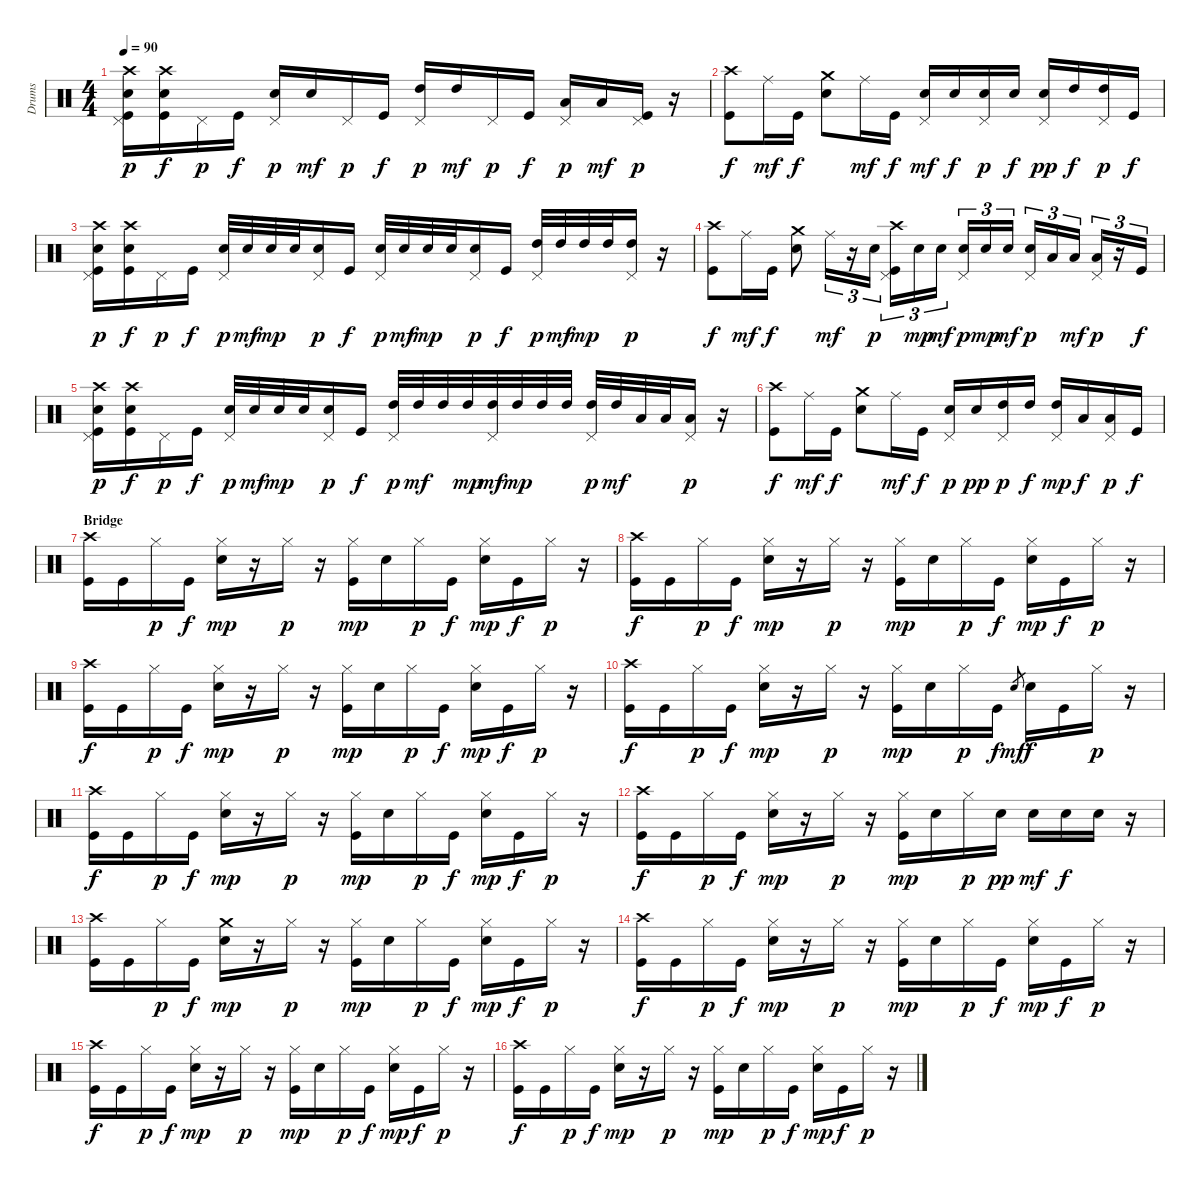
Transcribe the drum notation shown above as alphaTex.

\track ("Drums" "Drums") {instrument percussion}
\staff {score}
\articulation defaults
\ts (4 4)
\tempo 90
\clef neutral
\ks c
("Crash high (hit)" "Pedal Hi-Hat (hit)" "Snare (hit) 2" "Kick (hit)").16{dy p} ("Crash high (hit)" "Snare (hit) 2" "Kick (hit)").16{dy f} "Pedal Hi-Hat (hit)".16{dy p} "Kick (hit)".16{dy f} ("Pedal Hi-Hat (hit)" "Snare (hit) 2").16{dy p} "Snare (hit) 2".16{dy mf} "Pedal Hi-Hat (hit)".16{dy p} "Kick (hit)".16{dy f} ("Pedal Hi-Hat (hit)" "High Tom (hit)").16{dy p} "High Tom (hit)".16{dy mf} "Pedal Hi-Hat (hit)".16{dy p} "Kick (hit)".16{dy f} ("Pedal Hi-Hat (hit)" "Low Tom (hit)").16{dy p} "Low Tom (hit)".16{dy mf} ("Pedal Hi-Hat (hit)" "Kick (hit)").16{dy p} r.16 |
("Crash high (hit)" "Kick (hit)").8{dy f} "Ride (middle)".16{dy mf} "Kick (hit)".16{dy f} ("Crash medium (hit)" "Snare (hit) 2").8 "Ride (middle)".16{dy mf} "Kick (hit)".16{dy f} ("Pedal Hi-Hat (hit)" "Snare (hit) 2").16{dy mf} "Snare (hit) 2".16{dy f} ("Pedal Hi-Hat (hit)" "Snare (hit) 2").16{dy p} "Snare (hit) 2".16{dy f} ("Pedal Hi-Hat (hit)" "Snare (hit) 2").16{dy pp} "High Tom (hit)".16{dy f} ("Pedal Hi-Hat (hit)" "High Tom (hit)").16{dy p} "Kick (hit)".16{dy f} |
("Crash high (hit)" "Pedal Hi-Hat (hit)" "Snare (hit) 2" "Kick (hit)").16{dy p} ("Crash high (hit)" "Snare (hit) 2" "Kick (hit)").16{dy f} "Pedal Hi-Hat (hit)".16{dy p} "Kick (hit)".16{dy f} ("Pedal Hi-Hat (hit)" "Snare (hit) 2").32{dy p} "Snare (hit) 2".32{dy mf} "Snare (hit) 2".32{dy mp} "Snare (hit) 2".32 ("Pedal Hi-Hat (hit)" "Snare (hit) 2").16{dy p} "Kick (hit)".16{dy f} ("Pedal Hi-Hat (hit)" "Snare (hit) 2").32{dy p} "Snare (hit) 2".32{dy mf} "Snare (hit) 2".32{dy mp} "Snare (hit) 2".32 ("Pedal Hi-Hat (hit)" "Snare (hit) 2").16{dy p} "Kick (hit)".16{dy f} ("Pedal Hi-Hat (hit)" "High Tom (hit)").32{dy p} "High Tom (hit)".32{dy mf} "High Tom (hit)".32{dy mp} "High Tom (hit)".32 ("Pedal Hi-Hat (hit)" "High Tom (hit)").16{dy p} r.16 |
("Crash high (hit)" "Kick (hit)").8{dy f} "Ride (middle)".16{dy mf} "Kick (hit)".16{dy f} ("Crash medium (hit)" "Snare (hit) 2").8 "Ride (middle)".16{tu (3 2) dy mf} r.16{tu (3 2)} "Snare (hit) 2".16{tu (3 2) dy p} ("Crash high (hit)" "Pedal Hi-Hat (hit)" "Kick (hit)").16{tu (3 2)} "Snare (hit) 2".16{tu (3 2) dy mp} "Snare (hit) 2".16{tu (3 2) dy mf} ("Pedal Hi-Hat (hit)" "Snare (hit) 2").16{tu (3 2) dy p} "Snare (hit) 2".16{tu (3 2) dy mp} "Snare (hit) 2".16{tu (3 2) dy mf} ("Pedal Hi-Hat (hit)" "Snare (hit) 2").16{tu (3 2) dy p} "Low Tom (hit)".16{tu (3 2)} "Low Tom (hit)".16{tu (3 2) dy mf} ("Pedal Hi-Hat (hit)" "Low Tom (hit)").16{tu (3 2) dy p} r.16{tu (3 2)} "Kick (hit)".16{tu (3 2) dy f} |
("Crash high (hit)" "Pedal Hi-Hat (hit)" "Snare (hit) 2" "Kick (hit)").16{dy p} ("Crash high (hit)" "Snare (hit) 2" "Kick (hit)").16{dy f} "Pedal Hi-Hat (hit)".16{dy p} "Kick (hit)".16{dy f} ("Pedal Hi-Hat (hit)" "Snare (hit) 2").32{dy p} "Snare (hit) 2".32{dy mf} "Snare (hit) 2".32{dy mp} "Snare (hit) 2".32 ("Pedal Hi-Hat (hit)" "Snare (hit) 2").16{dy p} "Kick (hit)".16{dy f} ("Pedal Hi-Hat (hit)" "High Tom (hit)").32{dy p} "High Tom (hit)".32{dy mf} "High Tom (hit)".32 "High Tom (hit)".32{dy mp} ("Pedal Hi-Hat (hit)" "High Tom (hit)").32{dy mf} "High Tom (hit)".32{dy mp} "High Tom (hit)".32 "High Tom (hit)".32 ("Pedal Hi-Hat (hit)" "High Tom (hit)").32{dy p} "High Tom (hit)".32{dy mf} "Low Tom (hit)".32 "Low Tom (hit)".32 ("Pedal Hi-Hat (hit)" "Low Tom (hit)").16{dy p} r.16 |
("Crash high (hit)" "Kick (hit)").8{dy f} "Ride (middle)".16{dy mf} "Kick (hit)".16{dy f} ("Crash medium (hit)" "Snare (hit) 2").8 "Ride (middle)".16{dy mf} "Kick (hit)".16{dy f} ("Pedal Hi-Hat (hit)" "Snare (hit) 2").16{dy p} "Snare (hit) 2".16{dy pp} ("Pedal Hi-Hat (hit)" "High Tom (hit)").16{dy p} "High Tom (hit)".16{dy f} ("Pedal Hi-Hat (hit)" "High Tom (hit)").16{dy mp} "Low Tom (hit)".16{dy f} ("Pedal Hi-Hat (hit)" "Low Tom (hit)").16{dy p} "Kick (hit)".16{dy f} |
\section ("" "Bridge")
("Crash high (hit)" "Kick (hit)").16 "Kick (hit)".16 "Hi-Hat (closed)".16{dy p} "Kick (hit)".16{dy f} ("Hi-Hat (closed)" "Snare (hit) 2").16{dy mp} r.16 "Hi-Hat (closed)".16{dy p} r.16 ("Hi-Hat (closed)" "Kick (hit)").16{dy mp} "Snare (hit) 2".16 "Hi-Hat (closed)".16{dy p} "Kick (hit)".16{dy f} ("Hi-Hat (closed)" "Snare (hit) 2").16{dy mp} "Kick (hit)".16{dy f} "Hi-Hat (closed)".16{dy p} r.16 |
("Crash high (hit)" "Kick (hit)").16{dy f} "Kick (hit)".16 "Hi-Hat (closed)".16{dy p} "Kick (hit)".16{dy f} ("Hi-Hat (closed)" "Snare (hit) 2").16{dy mp} r.16 "Hi-Hat (closed)".16{dy p} r.16 ("Hi-Hat (closed)" "Kick (hit)").16{dy mp} "Snare (hit) 2".16 "Hi-Hat (closed)".16{dy p} "Kick (hit)".16{dy f} ("Hi-Hat (closed)" "Snare (hit) 2").16{dy mp} "Kick (hit)".16{dy f} "Hi-Hat (closed)".16{dy p} r.16 |
("Crash high (hit)" "Kick (hit)").16{dy f} "Kick (hit)".16 "Hi-Hat (closed)".16{dy p} "Kick (hit)".16{dy f} ("Hi-Hat (closed)" "Snare (hit) 2").16{dy mp} r.16 "Hi-Hat (closed)".16{dy p} r.16 ("Hi-Hat (closed)" "Kick (hit)").16{dy mp} "Snare (hit) 2".16 "Hi-Hat (closed)".16{dy p} "Kick (hit)".16{dy f} ("Hi-Hat (closed)" "Snare (hit) 2").16{dy mp} "Kick (hit)".16{dy f} "Hi-Hat (closed)".16{dy p} r.16 |
("Crash high (hit)" "Kick (hit)").16{dy f} "Kick (hit)".16 "Hi-Hat (closed)".16{dy p} "Kick (hit)".16{dy f} ("Hi-Hat (closed)" "Snare (hit) 2").16{dy mp} r.16 "Hi-Hat (closed)".16{dy p} r.16 ("Hi-Hat (closed)" "Kick (hit)").16{dy mp} "Snare (hit) 2".16 "Hi-Hat (closed)".16{dy p} "Kick (hit)".16{dy f} "Snare (hit) 2".8{gr dy mf} "Snare (hit) 2".16{dy f} "Kick (hit)".16 "Hi-Hat (closed)".16{dy p} r.16 |
("Crash high (hit)" "Kick (hit)").16{dy f} "Kick (hit)".16 "Hi-Hat (closed)".16{dy p} "Kick (hit)".16{dy f} ("Hi-Hat (closed)" "Snare (hit) 2").16{dy mp} r.16 "Hi-Hat (closed)".16{dy p} r.16 ("Hi-Hat (closed)" "Kick (hit)").16{dy mp} "Snare (hit) 2".16 "Hi-Hat (closed)".16{dy p} "Kick (hit)".16{dy f} ("Hi-Hat (closed)" "Snare (hit) 2").16{dy mp} "Kick (hit)".16{dy f} "Hi-Hat (closed)".16{dy p} r.16 |
("Crash high (hit)" "Kick (hit)").16{dy f} "Kick (hit)".16 "Hi-Hat (closed)".16{dy p} "Kick (hit)".16{dy f} ("Hi-Hat (closed)" "Snare (hit) 2").16{dy mp} r.16 "Hi-Hat (closed)".16{dy p} r.16 ("Hi-Hat (closed)" "Kick (hit)").16{dy mp} "Snare (hit) 2".16 "Hi-Hat (closed)".16{dy p} "Snare (hit) 2".16{dy pp} "Snare (hit) 2".16{dy mf} "Snare (hit) 2".16{dy f} "Snare (hit) 2".16 r.16 |
("Crash high (hit)" "Kick (hit)").16 "Kick (hit)".16 "Hi-Hat (closed)".16{dy p} "Kick (hit)".16{dy f} ("Crash medium (hit)" "Snare (hit) 2").16{dy mp} r.16 "Hi-Hat (closed)".16{dy p} r.16 ("Hi-Hat (closed)" "Kick (hit)").16{dy mp} "Snare (hit) 2".16 "Hi-Hat (closed)".16{dy p} "Kick (hit)".16{dy f} ("Hi-Hat (closed)" "Snare (hit) 2").16{dy mp} "Kick (hit)".16{dy f} "Hi-Hat (closed)".16{dy p} r.16 |
("Crash high (hit)" "Kick (hit)").16{dy f} "Kick (hit)".16 "Hi-Hat (closed)".16{dy p} "Kick (hit)".16{dy f} ("Hi-Hat (closed)" "Snare (hit) 2").16{dy mp} r.16 "Hi-Hat (closed)".16{dy p} r.16 ("Hi-Hat (closed)" "Kick (hit)").16{dy mp} "Snare (hit) 2".16 "Hi-Hat (closed)".16{dy p} "Kick (hit)".16{dy f} ("Hi-Hat (closed)" "Snare (hit) 2").16{dy mp} "Kick (hit)".16{dy f} "Hi-Hat (closed)".16{dy p} r.16 |
("Crash high (hit)" "Kick (hit)").16{dy f} "Kick (hit)".16 "Hi-Hat (closed)".16{dy p} "Kick (hit)".16{dy f} ("Hi-Hat (closed)" "Snare (hit) 2").16{dy mp} r.16 "Hi-Hat (closed)".16{dy p} r.16 ("Hi-Hat (closed)" "Kick (hit)").16{dy mp} "Snare (hit) 2".16 "Hi-Hat (closed)".16{dy p} "Kick (hit)".16{dy f} ("Hi-Hat (closed)" "Snare (hit) 2").16{dy mp} "Kick (hit)".16{dy f} "Hi-Hat (closed)".16{dy p} r.16 |
("Crash high (hit)" "Kick (hit)").16{dy f} "Kick (hit)".16 "Hi-Hat (closed)".16{dy p} "Kick (hit)".16{dy f} ("Hi-Hat (closed)" "Snare (hit) 2").16{dy mp} r.16 "Hi-Hat (closed)".16{dy p} r.16 ("Hi-Hat (closed)" "Kick (hit)").16{dy mp} "Snare (hit) 2".16 "Hi-Hat (closed)".16{dy p} "Kick (hit)".16{dy f} ("Hi-Hat (closed)" "Snare (hit) 2").16{dy mp} "Kick (hit)".16{dy f} "Hi-Hat (closed)".16{dy p} r.16
